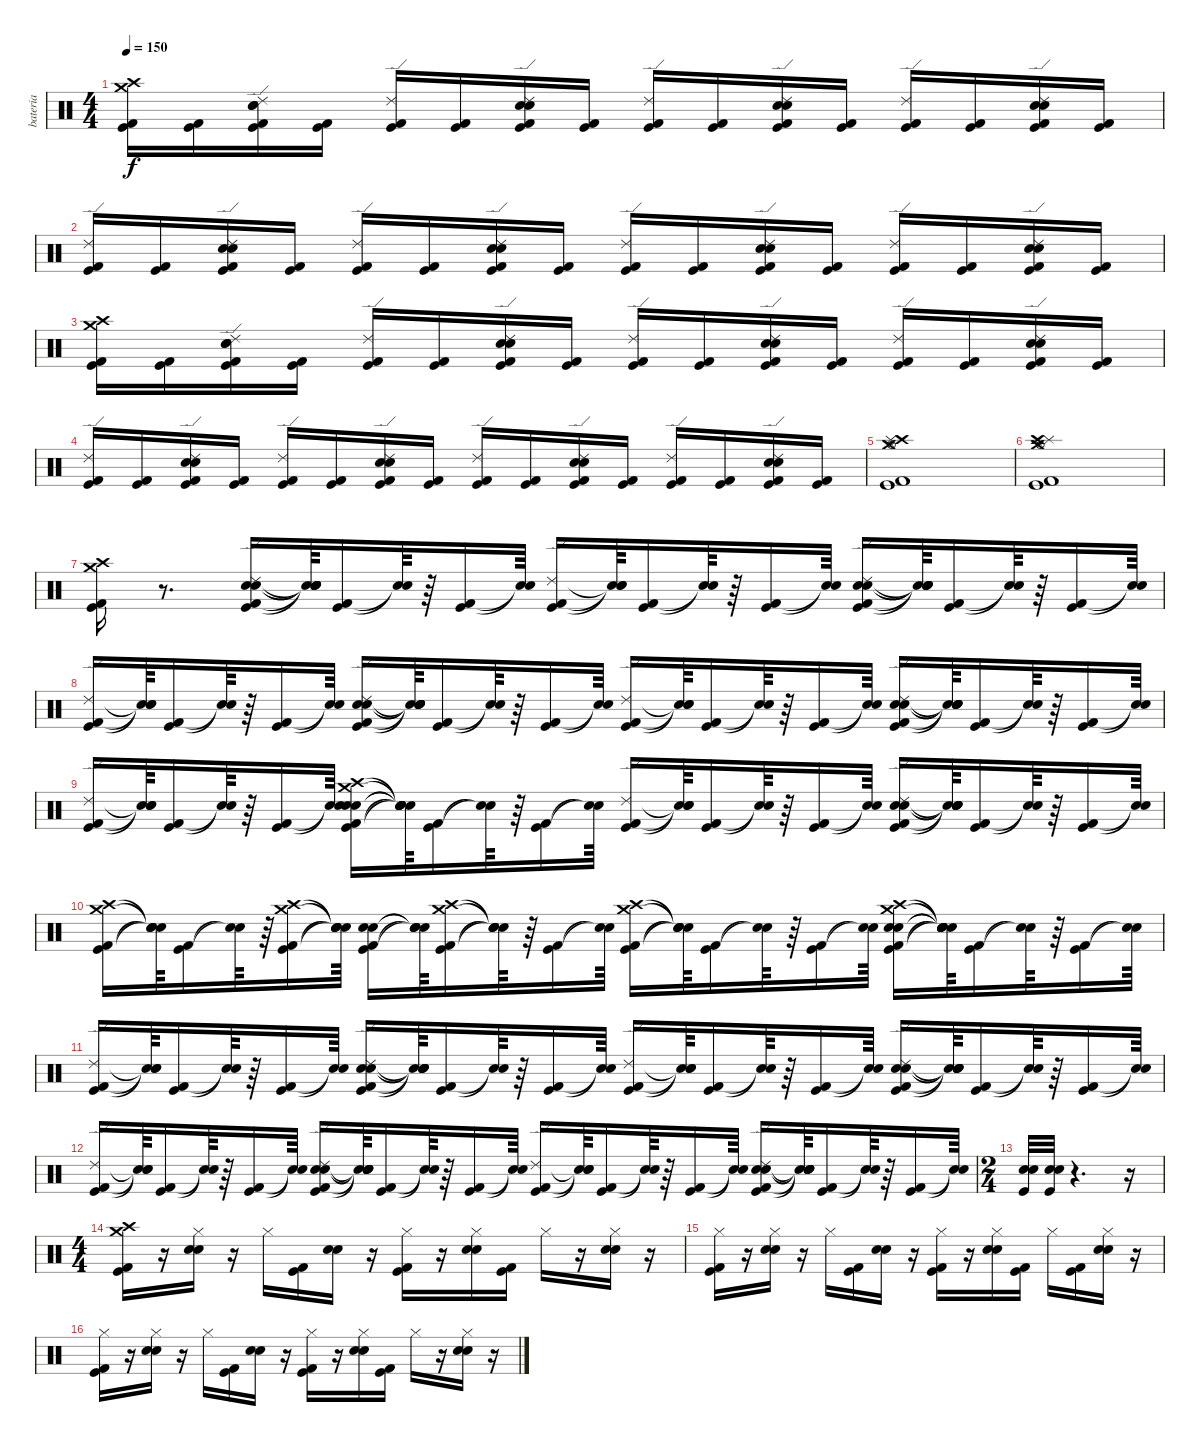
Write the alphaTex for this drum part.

\track ("bateria" "bateria") {instrument percussion}
\staff {score}
\articulation defaults
\ts (4 4)
\tempo 150
\clef neutral
\ks c
("Crash high (hit)" "Crash medium (hit)" "Kick (hit) 2" "Kick (hit)").16{dy f} ("Kick (hit) 2" "Kick (hit)").16 ("Ride (edge) 2" "Electric Snare (hit)" "Snare (hit) 2" "Kick (hit) 2" "Kick (hit)").16 ("Kick (hit) 2" "Kick (hit)").16 ("Ride (edge) 2" "Kick (hit) 2" "Kick (hit)").16 ("Kick (hit) 2" "Kick (hit)").16 ("Ride (edge) 2" "Electric Snare (hit)" "Snare (hit) 2" "Kick (hit) 2" "Kick (hit)").16 ("Kick (hit) 2" "Kick (hit)").16 ("Ride (edge) 2" "Kick (hit) 2" "Kick (hit)").16 ("Kick (hit) 2" "Kick (hit)").16 ("Ride (edge) 2" "Electric Snare (hit)" "Snare (hit) 2" "Kick (hit) 2" "Kick (hit)").16 ("Kick (hit) 2" "Kick (hit)").16 ("Ride (edge) 2" "Kick (hit) 2" "Kick (hit)").16 ("Kick (hit) 2" "Kick (hit)").16 ("Ride (edge) 2" "Electric Snare (hit)" "Snare (hit) 2" "Kick (hit) 2" "Kick (hit)").16 ("Kick (hit) 2" "Kick (hit)").16 |
("Ride (edge) 2" "Kick (hit) 2" "Kick (hit)").16 ("Kick (hit) 2" "Kick (hit)").16 ("Ride (edge) 2" "Electric Snare (hit)" "Snare (hit) 2" "Kick (hit) 2" "Kick (hit)").16 ("Kick (hit) 2" "Kick (hit)").16 ("Ride (edge) 2" "Kick (hit) 2" "Kick (hit)").16 ("Kick (hit) 2" "Kick (hit)").16 ("Ride (edge) 2" "Electric Snare (hit)" "Snare (hit) 2" "Kick (hit) 2" "Kick (hit)").16 ("Kick (hit) 2" "Kick (hit)").16 ("Ride (edge) 2" "Kick (hit) 2" "Kick (hit)").16 ("Kick (hit) 2" "Kick (hit)").16 ("Ride (edge) 2" "Electric Snare (hit)" "Snare (hit) 2" "Kick (hit) 2" "Kick (hit)").16 ("Kick (hit) 2" "Kick (hit)").16 ("Ride (edge) 2" "Kick (hit) 2" "Kick (hit)").16 ("Kick (hit) 2" "Kick (hit)").16 ("Ride (edge) 2" "Electric Snare (hit)" "Snare (hit) 2" "Kick (hit) 2" "Kick (hit)").16 ("Kick (hit) 2" "Kick (hit)").16 |
("Crash high (hit)" "Crash medium (hit)" "Kick (hit) 2" "Kick (hit)").16 ("Kick (hit) 2" "Kick (hit)").16 ("Ride (edge) 2" "Electric Snare (hit)" "Snare (hit) 2" "Kick (hit) 2" "Kick (hit)").16 ("Kick (hit) 2" "Kick (hit)").16 ("Ride (edge) 2" "Kick (hit) 2" "Kick (hit)").16 ("Kick (hit) 2" "Kick (hit)").16 ("Ride (edge) 2" "Electric Snare (hit)" "Snare (hit) 2" "Kick (hit) 2" "Kick (hit)").16 ("Kick (hit) 2" "Kick (hit)").16 ("Ride (edge) 2" "Kick (hit) 2" "Kick (hit)").16 ("Kick (hit) 2" "Kick (hit)").16 ("Ride (edge) 2" "Electric Snare (hit)" "Snare (hit) 2" "Kick (hit) 2" "Kick (hit)").16 ("Kick (hit) 2" "Kick (hit)").16 ("Ride (edge) 2" "Kick (hit) 2" "Kick (hit)").16 ("Kick (hit) 2" "Kick (hit)").16 ("Ride (edge) 2" "Electric Snare (hit)" "Snare (hit) 2" "Kick (hit) 2" "Kick (hit)").16 ("Kick (hit) 2" "Kick (hit)").16 |
("Ride (edge) 2" "Kick (hit) 2" "Kick (hit)").16 ("Kick (hit) 2" "Kick (hit)").16 ("Ride (edge) 2" "Electric Snare (hit)" "Snare (hit) 2" "Kick (hit) 2" "Kick (hit)").16 ("Kick (hit) 2" "Kick (hit)").16 ("Ride (edge) 2" "Kick (hit) 2" "Kick (hit)").16 ("Kick (hit) 2" "Kick (hit)").16 ("Ride (edge) 2" "Electric Snare (hit)" "Snare (hit) 2" "Kick (hit) 2" "Kick (hit)").16 ("Kick (hit) 2" "Kick (hit)").16 ("Ride (edge) 2" "Kick (hit) 2" "Kick (hit)").16 ("Kick (hit) 2" "Kick (hit)").16 ("Ride (edge) 2" "Electric Snare (hit)" "Snare (hit) 2" "Kick (hit) 2" "Kick (hit)").16 ("Kick (hit) 2" "Kick (hit)").16 ("Ride (edge) 2" "Kick (hit) 2" "Kick (hit)").16 ("Kick (hit) 2" "Kick (hit)").16 ("Ride (edge) 2" "Electric Snare (hit)" "Snare (hit) 2" "Kick (hit) 2" "Kick (hit)").16 ("Kick (hit) 2" "Kick (hit)").16 |
("Hi-Hat (open)" "Crash high (hit)" "Splash (hit)" "Crash medium (hit)" "Kick (hit) 2" "Kick (hit)").1 |
("Kick (hit)" "Kick (hit) 2" "Crash medium (hit)" "Splash (hit)" "Hi-Hat (open)" "Crash high (hit)").1 |
("Crash high (hit)" "Crash medium (hit)" "Kick (hit) 2" "Kick (hit)").16 r.8{d} ("Ride (edge) 2" "Electric Snare (hit)" "Snare (hit) 2" "Kick (hit) 2" "Kick (hit)").16 ("Snare (hit)"{t} "Snare (hit)"{t} "Snare (hit)"{t} "Snare (hit)"{t} "Snare (hit)"{t}).64 ("Kick (hit) 2" "Kick (hit)").16 ("Snare (hit)"{t} "Snare (hit)"{t}).64 r.64 ("Kick (hit) 2" "Kick (hit)").16 ("Snare (hit)"{t} "Snare (hit)"{t}).64 ("Ride (edge) 2" "Kick (hit) 2" "Kick (hit)").16 ("Snare (hit)"{t} "Snare (hit)"{t} "Snare (hit)"{t}).64 ("Kick (hit) 2" "Kick (hit)").16 ("Snare (hit)"{t} "Snare (hit)"{t}).64 r.64 ("Kick (hit) 2" "Kick (hit)").16 ("Snare (hit)"{t} "Snare (hit)"{t}).64 ("Ride (edge) 2" "Electric Snare (hit)" "Snare (hit) 2" "Kick (hit) 2" "Kick (hit)").16 ("Snare (hit)"{t} "Snare (hit)"{t} "Snare (hit)"{t} "Snare (hit)"{t} "Snare (hit)"{t}).64 ("Kick (hit) 2" "Kick (hit)").16 ("Snare (hit)"{t} "Snare (hit)"{t}).64 r.64 ("Kick (hit) 2" "Kick (hit)").16 ("Snare (hit)"{t} "Snare (hit)"{t}).64 |
("Ride (edge) 2" "Kick (hit) 2" "Kick (hit)").16 ("Snare (hit)"{t} "Snare (hit)"{t} "Snare (hit)"{t}).64 ("Kick (hit) 2" "Kick (hit)").16 ("Snare (hit)"{t} "Snare (hit)"{t}).64 r.64 ("Kick (hit) 2" "Kick (hit)").16 ("Snare (hit)"{t} "Snare (hit)"{t}).64 ("Ride (edge) 2" "Electric Snare (hit)" "Snare (hit) 2" "Kick (hit) 2" "Kick (hit)").16 ("Snare (hit)"{t} "Snare (hit)"{t} "Snare (hit)"{t} "Snare (hit)"{t} "Snare (hit)"{t}).64 ("Kick (hit) 2" "Kick (hit)").16 ("Snare (hit)"{t} "Snare (hit)"{t}).64 r.64 ("Kick (hit) 2" "Kick (hit)").16 ("Snare (hit)"{t} "Snare (hit)"{t}).64 ("Ride (edge) 2" "Kick (hit) 2" "Kick (hit)").16 ("Snare (hit)"{t} "Snare (hit)"{t} "Snare (hit)"{t}).64 ("Kick (hit) 2" "Kick (hit)").16 ("Snare (hit)"{t} "Snare (hit)"{t}).64 r.64 ("Kick (hit) 2" "Kick (hit)").16 ("Snare (hit)"{t} "Snare (hit)"{t}).64 ("Ride (edge) 2" "Electric Snare (hit)" "Snare (hit) 2" "Kick (hit) 2" "Kick (hit)").16 ("Snare (hit)"{t} "Snare (hit)"{t} "Snare (hit)"{t} "Snare (hit)"{t} "Snare (hit)"{t}).64 ("Kick (hit) 2" "Kick (hit)").16 ("Snare (hit)"{t} "Snare (hit)"{t}).64 r.64 ("Kick (hit) 2" "Kick (hit)").16 ("Snare (hit)"{t} "Snare (hit)"{t}).64 |
("Ride (edge) 2" "Kick (hit) 2" "Kick (hit)").16 ("Snare (hit)"{t} "Snare (hit)"{t} "Snare (hit)"{t}).64 ("Kick (hit) 2" "Kick (hit)").16 ("Snare (hit)"{t} "Snare (hit)"{t}).64 r.64 ("Kick (hit) 2" "Kick (hit)").16 ("Snare (hit)"{t} "Snare (hit)"{t}).64 ("Crash high (hit)" "Crash medium (hit)" "Electric Snare (hit)" "Snare (hit) 2" "Kick (hit) 2" "Kick (hit)").16 ("Snare (hit)"{t} "Snare (hit)"{t} "Snare (hit)"{t} "Snare (hit)"{t} "Snare (hit)"{t} "Snare (hit)"{t}).64 ("Kick (hit) 2" "Kick (hit)").16 ("Snare (hit)"{t} "Snare (hit)"{t}).64 r.64 ("Kick (hit) 2" "Kick (hit)").16 ("Snare (hit)"{t} "Snare (hit)"{t}).64 ("Ride (edge) 2" "Kick (hit) 2" "Kick (hit)").16 ("Snare (hit)"{t} "Snare (hit)"{t} "Snare (hit)"{t}).64 ("Kick (hit) 2" "Kick (hit)").16 ("Snare (hit)"{t} "Snare (hit)"{t}).64 r.64 ("Kick (hit) 2" "Kick (hit)").16 ("Snare (hit)"{t} "Snare (hit)"{t}).64 ("Ride (edge) 2" "Electric Snare (hit)" "Snare (hit) 2" "Kick (hit) 2" "Kick (hit)").16 ("Snare (hit)"{t} "Snare (hit)"{t} "Snare (hit)"{t} "Snare (hit)"{t} "Snare (hit)"{t}).64 ("Kick (hit) 2" "Kick (hit)").16 ("Snare (hit)"{t} "Snare (hit)"{t}).64 r.64 ("Kick (hit) 2" "Kick (hit)").16 ("Snare (hit)"{t} "Snare (hit)"{t}).64 |
("Crash high (hit)" "Crash medium (hit)" "Kick (hit) 2" "Kick (hit)").16 ("Snare (hit)"{t} "Snare (hit)"{t} "Snare (hit)"{t} "Snare (hit)"{t}).64 ("Kick (hit) 2" "Kick (hit)").16 ("Snare (hit)"{t} "Snare (hit)"{t}).64 r.64 ("Crash medium (hit)" "Crash high (hit)" "Kick (hit) 2" "Kick (hit)").16 ("Snare (hit)"{t} "Snare (hit)"{t} "Snare (hit)"{t} "Snare (hit)"{t}).64 ("Electric Snare (hit)" "Snare (hit) 2" "Kick (hit) 2" "Kick (hit)").16 ("Snare (hit)"{t} "Snare (hit)"{t} "Snare (hit)"{t} "Snare (hit)"{t}).64 ("Crash medium (hit)" "Crash high (hit)" "Kick (hit) 2" "Kick (hit)").16 ("Snare (hit)"{t} "Snare (hit)"{t} "Snare (hit)"{t} "Snare (hit)"{t}).64 r.64 ("Kick (hit) 2" "Kick (hit)").16 ("Snare (hit)"{t} "Snare (hit)"{t}).64 ("Crash high (hit)" "Crash medium (hit)" "Kick (hit) 2" "Kick (hit)").16 ("Snare (hit)"{t} "Snare (hit)"{t} "Snare (hit)"{t} "Snare (hit)"{t}).64 ("Kick (hit) 2" "Kick (hit)").16 ("Snare (hit)"{t} "Snare (hit)"{t}).64 r.64 ("Kick (hit) 2" "Kick (hit)").16 ("Snare (hit)"{t} "Snare (hit)"{t}).64 ("Crash high (hit)" "Crash medium (hit)" "Electric Snare (hit)" "Snare (hit) 2" "Kick (hit) 2" "Kick (hit)").16 ("Snare (hit)"{t} "Snare (hit)"{t} "Snare (hit)"{t} "Snare (hit)"{t} "Snare (hit)"{t} "Snare (hit)"{t}).64 ("Kick (hit) 2" "Kick (hit)").16 ("Snare (hit)"{t} "Snare (hit)"{t}).64 r.64 ("Kick (hit) 2" "Kick (hit)").16 ("Snare (hit)"{t} "Snare (hit)"{t}).64 |
("Ride (edge) 2" "Kick (hit) 2" "Kick (hit)").16 ("Snare (hit)"{t} "Snare (hit)"{t} "Snare (hit)"{t}).64 ("Kick (hit) 2" "Kick (hit)").16 ("Snare (hit)"{t} "Snare (hit)"{t}).64 r.64 ("Kick (hit) 2" "Kick (hit)").16 ("Snare (hit)"{t} "Snare (hit)"{t}).64 ("Ride (edge) 2" "Electric Snare (hit)" "Snare (hit) 2" "Kick (hit) 2" "Kick (hit)").16 ("Snare (hit)"{t} "Snare (hit)"{t} "Snare (hit)"{t} "Snare (hit)"{t} "Snare (hit)"{t}).64 ("Kick (hit) 2" "Kick (hit)").16 ("Snare (hit)"{t} "Snare (hit)"{t}).64 r.64 ("Kick (hit) 2" "Kick (hit)").16 ("Snare (hit)"{t} "Snare (hit)"{t}).64 ("Ride (edge) 2" "Kick (hit) 2" "Kick (hit)").16 ("Snare (hit)"{t} "Snare (hit)"{t} "Snare (hit)"{t}).64 ("Kick (hit) 2" "Kick (hit)").16 ("Snare (hit)"{t} "Snare (hit)"{t}).64 r.64 ("Kick (hit) 2" "Kick (hit)").16 ("Snare (hit)"{t} "Snare (hit)"{t}).64 ("Ride (edge) 2" "Electric Snare (hit)" "Snare (hit) 2" "Kick (hit) 2" "Kick (hit)").16 ("Snare (hit)"{t} "Snare (hit)"{t} "Snare (hit)"{t} "Snare (hit)"{t} "Snare (hit)"{t}).64 ("Kick (hit) 2" "Kick (hit)").16 ("Snare (hit)"{t} "Snare (hit)"{t}).64 r.64 ("Kick (hit) 2" "Kick (hit)").16 ("Snare (hit)"{t} "Snare (hit)"{t}).64 |
("Ride (edge) 2" "Kick (hit) 2" "Kick (hit)").16 ("Snare (hit)"{t} "Snare (hit)"{t} "Snare (hit)"{t}).64 ("Kick (hit) 2" "Kick (hit)").16 ("Snare (hit)"{t} "Snare (hit)"{t}).64 r.64 ("Kick (hit) 2" "Kick (hit)").16 ("Snare (hit)"{t} "Snare (hit)"{t}).64 ("Ride (edge) 2" "Electric Snare (hit)" "Snare (hit) 2" "Kick (hit) 2" "Kick (hit)").16 ("Snare (hit)"{t} "Snare (hit)"{t} "Snare (hit)"{t} "Snare (hit)"{t} "Snare (hit)"{t}).64 ("Kick (hit) 2" "Kick (hit)").16 ("Snare (hit)"{t} "Snare (hit)"{t}).64 r.64 ("Kick (hit) 2" "Kick (hit)").16 ("Snare (hit)"{t} "Snare (hit)"{t}).64 ("Ride (edge) 2" "Kick (hit) 2" "Kick (hit)").16 ("Snare (hit)"{t} "Snare (hit)"{t} "Snare (hit)"{t}).64 ("Kick (hit) 2" "Kick (hit)").16 ("Snare (hit)"{t} "Snare (hit)"{t}).64 r.64 ("Kick (hit) 2" "Kick (hit)").16 ("Snare (hit)"{t} "Snare (hit)"{t}).64 ("Ride (edge) 2" "Electric Snare (hit)" "Snare (hit) 2" "Kick (hit) 2" "Kick (hit)").16 ("Snare (hit)"{t} "Snare (hit)"{t} "Snare (hit)"{t} "Snare (hit)"{t} "Snare (hit)"{t}).64 ("Kick (hit) 2" "Kick (hit)").16 ("Snare (hit)"{t} "Snare (hit)"{t}).64 r.64 ("Kick (hit) 2" "Kick (hit)").16 ("Snare (hit)"{t} "Snare (hit)"{t}).64 |
\ts (2 4)
("Kick (hit)" "Electric Snare (hit)" "Snare (hit) 2").32 ("Kick (hit)" "Electric Snare (hit)" "Snare (hit) 2").32 r.4{d} r.16 |
\ts (4 4)
("Crash high (hit)" "Crash medium (hit)" "Kick (hit) 2" "Kick (hit)").16 r.16 ("Hi-Hat (closed)" "Electric Snare (hit)" "Snare (hit) 2").16 r.16 "Hi-Hat (closed)".16 ("Kick (hit) 2" "Kick (hit)").16 ("Electric Snare (hit)" "Snare (hit) 2").16 r.16 ("Hi-Hat (closed)" "Kick (hit) 2" "Kick (hit)").16 r.16 ("Hi-Hat (closed)" "Electric Snare (hit)" "Snare (hit) 2").16 ("Kick (hit) 2" "Kick (hit)").16 "Hi-Hat (closed)".16 r.16 ("Hi-Hat (closed)" "Electric Snare (hit)" "Snare (hit) 2").16 r.16 |
("Hi-Hat (closed)" "Kick (hit) 2" "Kick (hit)").16 r.16 ("Hi-Hat (closed)" "Electric Snare (hit)" "Snare (hit) 2").16 r.16 "Hi-Hat (closed)".16 ("Kick (hit) 2" "Kick (hit)").16 ("Electric Snare (hit)" "Snare (hit) 2").16 r.16 ("Hi-Hat (closed)" "Kick (hit) 2" "Kick (hit)").16 r.16 ("Hi-Hat (closed)" "Electric Snare (hit)" "Snare (hit) 2").16 ("Kick (hit) 2" "Kick (hit)").16 "Hi-Hat (closed)".16 ("Kick (hit) 2" "Kick (hit)").16 ("Hi-Hat (closed)" "Electric Snare (hit)" "Snare (hit) 2").16 r.16 |
("Hi-Hat (closed)" "Kick (hit) 2" "Kick (hit)").16 r.16 ("Hi-Hat (closed)" "Electric Snare (hit)" "Snare (hit) 2").16 r.16 "Hi-Hat (closed)".16 ("Kick (hit) 2" "Kick (hit)").16 ("Electric Snare (hit)" "Snare (hit) 2").16 r.16 ("Hi-Hat (closed)" "Kick (hit) 2" "Kick (hit)").16 r.16 ("Hi-Hat (closed)" "Electric Snare (hit)" "Snare (hit) 2").16 ("Kick (hit) 2" "Kick (hit)").16 "Hi-Hat (closed)".16 r.16 ("Hi-Hat (closed)" "Electric Snare (hit)" "Snare (hit) 2").16 r.16
